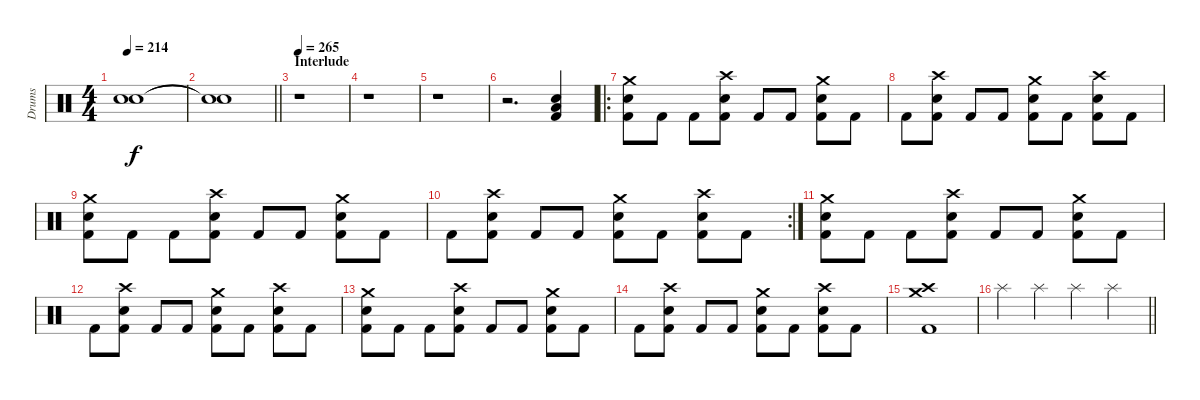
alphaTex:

\track ("Drums" "Drums") {instrument percussion}
\staff {score}
\articulation defaults
\ts (4 4)
\tempo 214
\clef neutral
\ks c
("Snare (hit)"{t} "Snare (hit)"{t}).1{dy f} |
\barLineRight lightlight
("Snare (hit)"{t} "Snare (hit)"{t}).1 |
\section ("" "Interlude")
\tempo 265
r.1 |
r.1 |
r.1 |
r.2{d} ("Low Floor Tom (hit)" "Electric Snare (hit)" "Kick (hit) 2").4 |
\ro
("Crash medium (hit)" "Electric Snare (hit)" "Kick (hit) 2").8 "Kick (hit) 2".8 "Kick (hit) 2".8 ("Crash high (hit)" "Electric Snare (hit)" "Kick (hit) 2").8 "Kick (hit) 2".8 "Kick (hit) 2".8 ("Crash medium (hit)" "Electric Snare (hit)" "Kick (hit) 2").8 "Kick (hit) 2".8 |
"Kick (hit) 2".8 ("Crash high (hit)" "Electric Snare (hit)" "Kick (hit) 2").8 "Kick (hit) 2".8 "Kick (hit) 2".8 ("Crash medium (hit)" "Electric Snare (hit)" "Kick (hit) 2").8 "Kick (hit) 2".8 ("Crash high (hit)" "Electric Snare (hit)" "Kick (hit) 2").8 "Kick (hit) 2".8 |
("Crash medium (hit)" "Electric Snare (hit)" "Kick (hit) 2").8 "Kick (hit) 2".8 "Kick (hit) 2".8 ("Crash high (hit)" "Electric Snare (hit)" "Kick (hit) 2").8 "Kick (hit) 2".8 "Kick (hit) 2".8 ("Crash medium (hit)" "Electric Snare (hit)" "Kick (hit) 2").8 "Kick (hit) 2".8 |
\rc 2 "Kick (hit) 2".8
("Crash high (hit)" "Electric Snare (hit)" "Kick (hit) 2").8 "Kick (hit) 2".8 "Kick (hit) 2".8 ("Crash medium (hit)" "Electric Snare (hit)" "Kick (hit) 2").8 "Kick (hit) 2".8 ("Crash high (hit)" "Electric Snare (hit)" "Kick (hit) 2").8 "Kick (hit) 2".8 |
("Crash medium (hit)" "Electric Snare (hit)" "Kick (hit) 2").8 "Kick (hit) 2".8 "Kick (hit) 2".8 ("Crash high (hit)" "Electric Snare (hit)" "Kick (hit) 2").8 "Kick (hit) 2".8 "Kick (hit) 2".8 ("Crash medium (hit)" "Electric Snare (hit)" "Kick (hit) 2").8 "Kick (hit) 2".8 |
"Kick (hit) 2".8 ("Crash high (hit)" "Electric Snare (hit)" "Kick (hit) 2").8 "Kick (hit) 2".8 "Kick (hit) 2".8 ("Crash medium (hit)" "Electric Snare (hit)" "Kick (hit) 2").8 "Kick (hit) 2".8 ("Crash high (hit)" "Electric Snare (hit)" "Kick (hit) 2").8 "Kick (hit) 2".8 |
("Crash medium (hit)" "Electric Snare (hit)" "Kick (hit) 2").8 "Kick (hit) 2".8 "Kick (hit) 2".8 ("Crash high (hit)" "Electric Snare (hit)" "Kick (hit) 2").8 "Kick (hit) 2".8 "Kick (hit) 2".8 ("Crash medium (hit)" "Electric Snare (hit)" "Kick (hit) 2").8 "Kick (hit) 2".8 |
"Kick (hit) 2".8 ("Crash high (hit)" "Electric Snare (hit)" "Kick (hit) 2").8 "Kick (hit) 2".8 "Kick (hit) 2".8 ("Crash medium (hit)" "Electric Snare (hit)" "Kick (hit) 2").8 "Kick (hit) 2".8 ("Crash high (hit)" "Electric Snare (hit)" "Kick (hit) 2").8 "Kick (hit) 2".8 |
("Crash medium (hit)" "Crash high (hit)" "Kick (hit) 2").1 |
\barLineRight lightlight "Splash (hit)".4 "Splash (hit)".4 "Splash (hit)".4 "Splash (hit)".4
